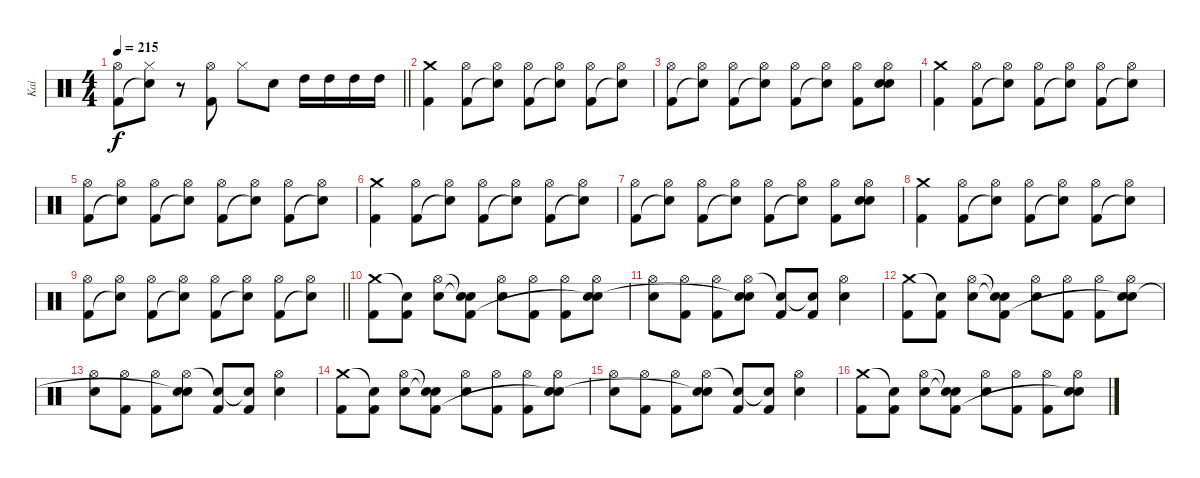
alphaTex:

\track ("Kai" "Kai") {instrument percussion}
\staff {score}
\articulation defaults
\ts (4 4)
\tempo 215
\clef neutral
\barLineRight lightlight
\ks c
("Hi-Hat (open)" "Kick (hit) 2").8{dy f} ("Hi-Hat (closed)" "Snare (hit)"{t}).8 r.8 ("Hi-Hat (open)" "Kick (hit) 2").8 "Hi-Hat (closed)".8 "Snare (hit) 2".8 "High Tom (hit)".16 "High Tom (hit)".16 "High Tom (hit)".16 "High Tom (hit)".16 |
("Crash medium (hit)" "Kick (hit) 2").4 ("Hi-Hat (open)" "Kick (hit) 2").8 ("Hi-Hat (open)" "Snare (hit)"{t}).8 ("Hi-Hat (open)" "Kick (hit) 2").8 ("Hi-Hat (open)" "Snare (hit)"{t}).8 ("Hi-Hat (open)" "Kick (hit) 2").8 ("Hi-Hat (open)" "Snare (hit)"{t}).8 |
("Hi-Hat (open)" "Kick (hit) 2").8 ("Hi-Hat (open)" "Snare (hit)"{t}).8 ("Hi-Hat (open)" "Kick (hit) 2").8 ("Hi-Hat (open)" "Snare (hit)"{t}).8 ("Hi-Hat (open)" "Kick (hit) 2").8 ("Hi-Hat (open)" "Snare (hit)"{t}).8 ("Hi-Hat (open)" "Kick (hit) 2").8 ("Hi-Hat (open)" "Snare (hit) 2" "Snare (hit)").8 |
("Crash medium (hit)" "Kick (hit) 2").4 ("Hi-Hat (open)" "Kick (hit) 2").8 ("Hi-Hat (open)" "Snare (hit)"{t}).8 ("Hi-Hat (open)" "Kick (hit) 2").8 ("Hi-Hat (open)" "Snare (hit)"{t}).8 ("Hi-Hat (open)" "Kick (hit) 2").8 ("Hi-Hat (open)" "Snare (hit)"{t}).8 |
("Hi-Hat (open)" "Kick (hit) 2").8 ("Hi-Hat (open)" "Snare (hit)"{t}).8 ("Hi-Hat (open)" "Kick (hit) 2").8 ("Hi-Hat (open)" "Snare (hit)"{t}).8 ("Hi-Hat (open)" "Kick (hit) 2").8 ("Hi-Hat (open)" "Snare (hit)"{t}).8 ("Hi-Hat (open)" "Kick (hit) 2").8 ("Hi-Hat (open)" "Snare (hit)"{t}).8 |
("Crash medium (hit)" "Kick (hit) 2").4 ("Hi-Hat (open)" "Kick (hit) 2").8 ("Hi-Hat (open)" "Snare (hit)"{t}).8 ("Hi-Hat (open)" "Kick (hit) 2").8 ("Hi-Hat (open)" "Snare (hit)"{t}).8 ("Hi-Hat (open)" "Kick (hit) 2").8 ("Hi-Hat (open)" "Snare (hit)"{t}).8 |
("Hi-Hat (open)" "Kick (hit) 2").8 ("Hi-Hat (open)" "Snare (hit)"{t}).8 ("Hi-Hat (open)" "Kick (hit) 2").8 ("Hi-Hat (open)" "Snare (hit)"{t}).8 ("Hi-Hat (open)" "Kick (hit) 2").8 ("Hi-Hat (open)" "Snare (hit)"{t}).8 ("Hi-Hat (open)" "Kick (hit) 2").8 ("Hi-Hat (open)" "Snare (hit) 2" "Snare (hit)").8 |
("Crash medium (hit)" "Kick (hit) 2").4 ("Hi-Hat (open)" "Kick (hit) 2").8 ("Hi-Hat (open)" "Snare (hit)"{t}).8 ("Hi-Hat (open)" "Kick (hit) 2").8 ("Hi-Hat (open)" "Snare (hit)"{t}).8 ("Hi-Hat (open)" "Kick (hit) 2").8 ("Hi-Hat (open)" "Snare (hit)"{t}).8 |
\barLineRight lightlight
("Hi-Hat (open)" "Kick (hit) 2").8 ("Hi-Hat (open)" "Snare (hit)"{t}).8 ("Hi-Hat (open)" "Kick (hit) 2").8 ("Hi-Hat (open)" "Snare (hit)"{t}).8 ("Hi-Hat (open)" "Kick (hit) 2").8 ("Hi-Hat (open)" "Snare (hit)"{t}).8 ("Hi-Hat (open)" "Kick (hit) 2").8 ("Hi-Hat (open)" "Snare (hit)"{t}).8 |
("Crash medium (hit)" "Kick (hit) 2").8 ("Snare (hit)"{t} "Kick (hit) 2").8 ("Hi-Hat (open)" "Snare (hit) 2").8 ("Snare (hit)"{t} "Snare (hit)"{t} "Kick (hit) 2").8 ("Hi-Hat (open)" "Snare (hit) 2").8 ("Hi-Hat (open)" "Kick (hit) 2").8 ("Hi-Hat (open)" "Kick (hit) 2").8 ("Hi-Hat (open)" "Snare (hit) 2" "Snare (hit)"{t}).8 |
("Hi-Hat (open)" "Snare (hit) 2").8 ("Hi-Hat (open)" "Kick (hit) 2").8 ("Hi-Hat (open)" "Kick (hit) 2").8 ("Hi-Hat (open)" "Snare (hit) 2" "Snare (hit)"{t}).8 ("Snare (hit)"{t} "Kick (hit) 2").8 ("Snare (hit)"{t} "Kick (hit) 2").8 ("Hi-Hat (open)" "Snare (hit) 2").4 |
("Crash medium (hit)" "Kick (hit) 2").8 ("Snare (hit)"{t} "Kick (hit) 2").8 ("Hi-Hat (open)" "Snare (hit) 2").8 ("Snare (hit)"{t} "Snare (hit)"{t} "Kick (hit) 2").8 ("Hi-Hat (open)" "Snare (hit) 2").8 ("Hi-Hat (open)" "Kick (hit) 2").8 ("Hi-Hat (open)" "Kick (hit) 2").8 ("Hi-Hat (open)" "Snare (hit) 2" "Snare (hit)"{t}).8 |
("Hi-Hat (open)" "Snare (hit) 2").8 ("Hi-Hat (open)" "Kick (hit) 2").8 ("Hi-Hat (open)" "Kick (hit) 2").8 ("Hi-Hat (open)" "Snare (hit) 2" "Snare (hit)"{t}).8 ("Snare (hit)"{t} "Kick (hit) 2").8 ("Snare (hit)"{t} "Kick (hit) 2").8 ("Hi-Hat (open)" "Snare (hit) 2").4 |
("Crash medium (hit)" "Kick (hit) 2").8 ("Snare (hit)"{t} "Kick (hit) 2").8 ("Hi-Hat (open)" "Snare (hit) 2").8 ("Snare (hit)"{t} "Snare (hit)"{t} "Kick (hit) 2").8 ("Hi-Hat (open)" "Snare (hit) 2").8 ("Hi-Hat (open)" "Kick (hit) 2").8 ("Hi-Hat (open)" "Kick (hit) 2").8 ("Hi-Hat (open)" "Snare (hit) 2" "Snare (hit)"{t}).8 |
("Hi-Hat (open)" "Snare (hit) 2").8 ("Hi-Hat (open)" "Kick (hit) 2").8 ("Hi-Hat (open)" "Kick (hit) 2").8 ("Hi-Hat (open)" "Snare (hit) 2" "Snare (hit)"{t}).8 ("Snare (hit)"{t} "Kick (hit) 2").8 ("Snare (hit)"{t} "Kick (hit) 2").8 ("Hi-Hat (open)" "Snare (hit) 2").4 |
("Crash medium (hit)" "Kick (hit) 2").8 ("Snare (hit)"{t} "Kick (hit) 2").8 ("Hi-Hat (open)" "Snare (hit) 2").8 ("Snare (hit)"{t} "Snare (hit)"{t} "Kick (hit) 2").8 ("Hi-Hat (open)" "Snare (hit) 2").8 ("Hi-Hat (open)" "Kick (hit) 2").8 ("Hi-Hat (open)" "Kick (hit) 2").8 ("Hi-Hat (open)" "Snare (hit) 2" "Snare (hit)"{t}).8
